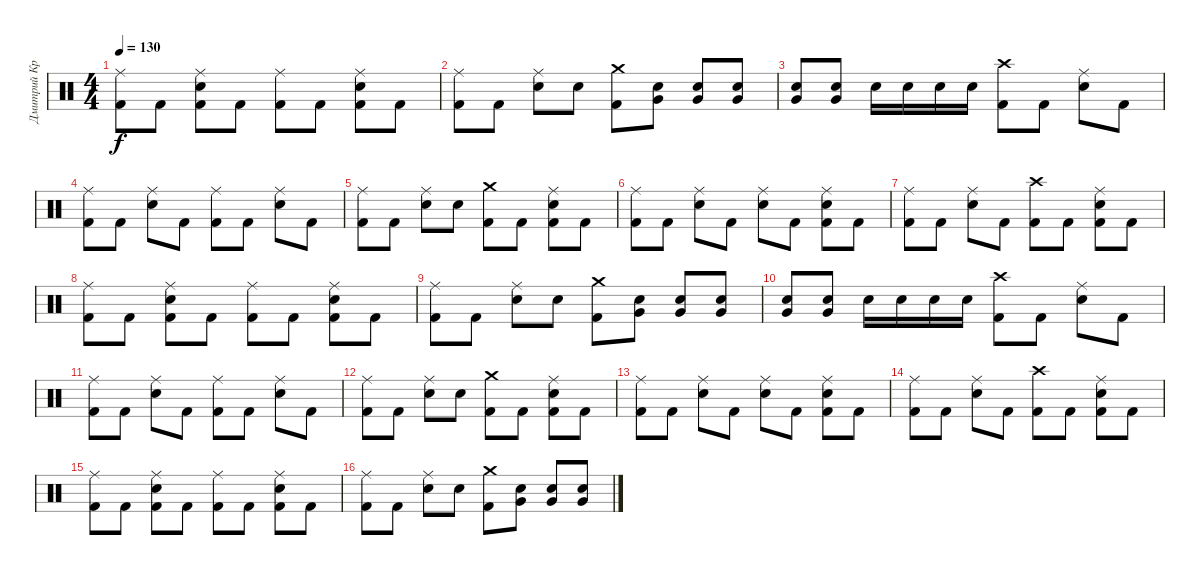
\track ("Дмитрий Кривенков" "Дмитрий Кр") {instrument percussion}
\staff {score}
\articulation defaults
\ts (4 4)
\tempo 130
\clef neutral
\ks c
("Ride (middle)" "Kick (hit) 2").8{dy f} "Kick (hit) 2".8 ("Kick (hit) 2" "Electric Snare (hit)" "Ride (middle)").8 "Kick (hit) 2".8 ("Ride (middle)" "Kick (hit) 2").8 "Kick (hit) 2".8 ("Kick (hit) 2" "Electric Snare (hit)" "Ride (middle)").8 "Kick (hit) 2".8 |
("Kick (hit) 2" "Ride (middle)").8 "Kick (hit) 2".8 ("Ride (middle)" "Electric Snare (hit)").8 "Electric Snare (hit)".8 ("Kick (hit) 2" "Crash medium (hit)").8 ("Electric Snare (hit)" "Very Low Tom (hit)").8 ("Very Low Tom (hit)" "Electric Snare (hit)").8 ("Electric Snare (hit)" "Very Low Tom (hit)").8 |
("Electric Snare (hit)" "Very Low Tom (hit)").8 ("Very Low Tom (hit)" "Electric Snare (hit)").8 "Electric Snare (hit)".16 "Electric Snare (hit)".16 "Electric Snare (hit)".16 "Electric Snare (hit)".16 ("Crash high (hit)" "Kick (hit) 2").8 "Kick (hit) 2".8 ("Ride (middle)" "Electric Snare (hit)").8 "Kick (hit) 2".8 |
("Ride (middle)" "Kick (hit) 2").8 "Kick (hit) 2".8 ("Ride (middle)" "Electric Snare (hit)").8 "Kick (hit) 2".8 ("Kick (hit) 2" "Ride (middle)").8 "Kick (hit) 2".8 ("Ride (middle)" "Electric Snare (hit)").8 "Kick (hit) 2".8 |
("Kick (hit) 2" "Ride (middle)").8 "Kick (hit) 2".8 ("Electric Snare (hit)" "Ride (middle)").8 "Electric Snare (hit)".8 ("Crash medium (hit)" "Kick (hit) 2").8 "Kick (hit) 2".8 ("Ride (middle)" "Kick (hit) 2" "Electric Snare (hit)").8 "Kick (hit) 2".8 |
("Kick (hit) 2" "Ride (middle)").8 "Kick (hit) 2".8 ("Ride (middle)" "Electric Snare (hit)").8 "Kick (hit) 2".8 ("Ride (middle)" "Electric Snare (hit)").8 "Kick (hit) 2".8 ("Ride (middle)" "Electric Snare (hit)" "Kick (hit) 2").8 "Kick (hit) 2".8 |
("Ride (middle)" "Kick (hit) 2").8 "Kick (hit) 2".8 ("Ride (middle)" "Electric Snare (hit)").8 "Kick (hit) 2".8 ("Kick (hit) 2" "Crash high (hit)").8 "Kick (hit) 2".8 ("Ride (middle)" "Kick (hit) 2" "Electric Snare (hit)").8 "Kick (hit) 2".8 |
("Ride (middle)" "Kick (hit) 2").8 "Kick (hit) 2".8 ("Kick (hit) 2" "Electric Snare (hit)" "Ride (middle)").8 "Kick (hit) 2".8 ("Ride (middle)" "Kick (hit) 2").8 "Kick (hit) 2".8 ("Kick (hit) 2" "Electric Snare (hit)" "Ride (middle)").8 "Kick (hit) 2".8 |
("Kick (hit) 2" "Ride (middle)").8 "Kick (hit) 2".8 ("Ride (middle)" "Electric Snare (hit)").8 "Electric Snare (hit)".8 ("Kick (hit) 2" "Crash medium (hit)").8 ("Electric Snare (hit)" "Very Low Tom (hit)").8 ("Very Low Tom (hit)" "Electric Snare (hit)").8 ("Electric Snare (hit)" "Very Low Tom (hit)").8 |
("Electric Snare (hit)" "Very Low Tom (hit)").8 ("Very Low Tom (hit)" "Electric Snare (hit)").8 "Electric Snare (hit)".16 "Electric Snare (hit)".16 "Electric Snare (hit)".16 "Electric Snare (hit)".16 ("Crash high (hit)" "Kick (hit) 2").8 "Kick (hit) 2".8 ("Ride (middle)" "Electric Snare (hit)").8 "Kick (hit) 2".8 |
("Ride (middle)" "Kick (hit) 2").8 "Kick (hit) 2".8 ("Ride (middle)" "Electric Snare (hit)").8 "Kick (hit) 2".8 ("Kick (hit) 2" "Ride (middle)").8 "Kick (hit) 2".8 ("Ride (middle)" "Electric Snare (hit)").8 "Kick (hit) 2".8 |
("Kick (hit) 2" "Ride (middle)").8 "Kick (hit) 2".8 ("Electric Snare (hit)" "Ride (middle)").8 "Electric Snare (hit)".8 ("Crash medium (hit)" "Kick (hit) 2").8 "Kick (hit) 2".8 ("Ride (middle)" "Kick (hit) 2" "Electric Snare (hit)").8 "Kick (hit) 2".8 |
("Kick (hit) 2" "Ride (middle)").8 "Kick (hit) 2".8 ("Ride (middle)" "Electric Snare (hit)").8 "Kick (hit) 2".8 ("Ride (middle)" "Electric Snare (hit)").8 "Kick (hit) 2".8 ("Ride (middle)" "Electric Snare (hit)" "Kick (hit) 2").8 "Kick (hit) 2".8 |
("Ride (middle)" "Kick (hit) 2").8 "Kick (hit) 2".8 ("Ride (middle)" "Electric Snare (hit)").8 "Kick (hit) 2".8 ("Kick (hit) 2" "Crash high (hit)").8 "Kick (hit) 2".8 ("Ride (middle)" "Kick (hit) 2" "Electric Snare (hit)").8 "Kick (hit) 2".8 |
("Ride (middle)" "Kick (hit) 2").8 "Kick (hit) 2".8 ("Kick (hit) 2" "Electric Snare (hit)" "Ride (middle)").8 "Kick (hit) 2".8 ("Ride (middle)" "Kick (hit) 2").8 "Kick (hit) 2".8 ("Kick (hit) 2" "Electric Snare (hit)" "Ride (middle)").8 "Kick (hit) 2".8 |
("Kick (hit) 2" "Ride (middle)").8 "Kick (hit) 2".8 ("Ride (middle)" "Electric Snare (hit)").8 "Electric Snare (hit)".8 ("Kick (hit) 2" "Crash medium (hit)").8 ("Electric Snare (hit)" "Very Low Tom (hit)").8 ("Very Low Tom (hit)" "Electric Snare (hit)").8 ("Electric Snare (hit)" "Very Low Tom (hit)").8
